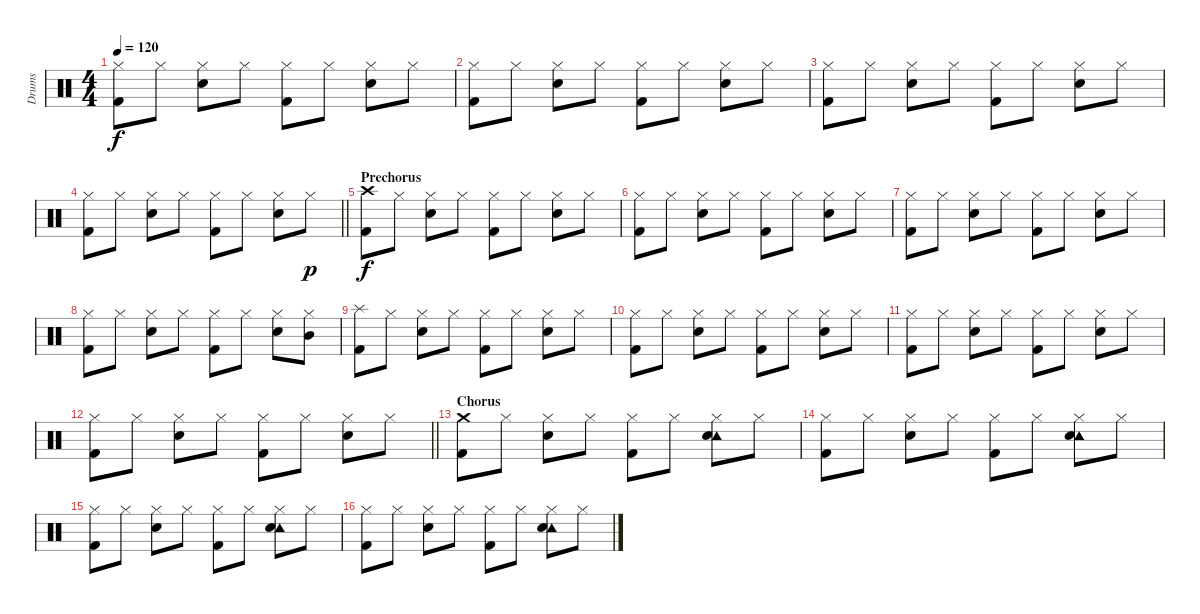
\track ("Drums" "Drums") {instrument percussion}
\staff {score}
\articulation defaults
\ts (4 4)
\tempo 120
\clef neutral
\ks c
("Hi-Hat (closed)" "Kick (hit) 2").8{dy f} "Hi-Hat (closed)".8 ("Hi-Hat (closed)" "Electric Snare (hit)").8 "Hi-Hat (closed)".8 ("Hi-Hat (closed)" "Kick (hit) 2").8 "Hi-Hat (closed)".8 ("Hi-Hat (closed)" "Electric Snare (hit)").8 "Hi-Hat (closed)".8 |
("Hi-Hat (closed)" "Kick (hit) 2").8 "Hi-Hat (closed)".8 ("Hi-Hat (closed)" "Electric Snare (hit)").8 "Hi-Hat (closed)".8 ("Hi-Hat (closed)" "Kick (hit) 2").8 "Hi-Hat (closed)".8 ("Hi-Hat (closed)" "Electric Snare (hit)").8 "Hi-Hat (closed)".8 |
("Hi-Hat (closed)" "Kick (hit) 2").8 "Hi-Hat (closed)".8 ("Hi-Hat (closed)" "Electric Snare (hit)").8 "Hi-Hat (closed)".8 ("Hi-Hat (closed)" "Kick (hit) 2").8 "Hi-Hat (closed)".8 ("Hi-Hat (closed)" "Electric Snare (hit)").8 "Hi-Hat (closed)".8 |
\barLineRight lightlight
("Hi-Hat (closed)" "Kick (hit) 2").8 "Hi-Hat (closed)".8 ("Hi-Hat (closed)" "Electric Snare (hit)").8 "Hi-Hat (closed)".8 ("Hi-Hat (closed)" "Kick (hit) 2").8 "Hi-Hat (closed)".8 ("Hi-Hat (closed)" "Electric Snare (hit)").8 "Hi-Hat (closed)".8{dy p} |
\section ("" "Prechorus")
("Crash high (hit)" "Kick (hit) 2").8{dy f} "Hi-Hat (closed)".8 ("Hi-Hat (closed)" "Electric Snare (hit)").8 "Hi-Hat (closed)".8 ("Hi-Hat (closed)" "Kick (hit) 2").8 "Hi-Hat (closed)".8 ("Hi-Hat (closed)" "Electric Snare (hit)").8 "Hi-Hat (closed)".8 |
("Hi-Hat (closed)" "Kick (hit) 2").8 "Hi-Hat (closed)".8 ("Hi-Hat (closed)" "Electric Snare (hit)").8 "Hi-Hat (closed)".8 ("Hi-Hat (closed)" "Kick (hit) 2").8 "Hi-Hat (closed)".8 ("Hi-Hat (closed)" "Electric Snare (hit)").8 "Hi-Hat (closed)".8 |
("Hi-Hat (closed)" "Kick (hit) 2").8 "Hi-Hat (closed)".8 ("Hi-Hat (closed)" "Electric Snare (hit)").8 "Hi-Hat (closed)".8 ("Hi-Hat (closed)" "Kick (hit) 2").8 "Hi-Hat (closed)".8 ("Hi-Hat (closed)" "Electric Snare (hit)").8 "Hi-Hat (closed)".8 |
("Hi-Hat (closed)" "Kick (hit) 2").8 "Hi-Hat (closed)".8 ("Hi-Hat (closed)" "Electric Snare (hit)").8 "Hi-Hat (closed)".8 ("Hi-Hat (closed)" "Kick (hit) 2").8 "Hi-Hat (closed)".8 ("Hi-Hat (closed)" "Electric Snare (hit)").8 ("Hi-Hat (closed)" "Mid Tom (hit)").8 |
("Splash (hit)" "Kick (hit) 2").8 "Hi-Hat (closed)".8 ("Hi-Hat (closed)" "Electric Snare (hit)").8 "Hi-Hat (closed)".8 ("Hi-Hat (closed)" "Kick (hit) 2").8 "Hi-Hat (closed)".8 ("Hi-Hat (closed)" "Electric Snare (hit)").8 "Hi-Hat (closed)".8 |
("Hi-Hat (closed)" "Kick (hit) 2").8 "Hi-Hat (closed)".8 ("Hi-Hat (closed)" "Electric Snare (hit)").8 "Hi-Hat (closed)".8 ("Hi-Hat (closed)" "Kick (hit) 2").8 "Hi-Hat (closed)".8 ("Hi-Hat (closed)" "Electric Snare (hit)").8 "Hi-Hat (closed)".8 |
("Hi-Hat (closed)" "Kick (hit) 2").8 "Hi-Hat (closed)".8 ("Hi-Hat (closed)" "Electric Snare (hit)").8 "Hi-Hat (closed)".8 ("Hi-Hat (closed)" "Kick (hit) 2").8 "Hi-Hat (closed)".8 ("Hi-Hat (closed)" "Electric Snare (hit)").8 "Hi-Hat (closed)".8 |
\barLineRight lightlight
("Hi-Hat (closed)" "Kick (hit) 2").8 "Hi-Hat (closed)".8 ("Hi-Hat (closed)" "Electric Snare (hit)").8 "Hi-Hat (closed)".8 ("Hi-Hat (closed)" "Kick (hit) 2").8 "Hi-Hat (closed)".8 ("Hi-Hat (closed)" "Electric Snare (hit)").8 "Hi-Hat (closed)".8 |
\section ("" "Chorus")
("Crash medium (hit)" "Kick (hit) 2").8 "Hi-Hat (closed)".8 ("Hi-Hat (closed)" "Electric Snare (hit)").8 "Hi-Hat (closed)".8 ("Hi-Hat (closed)" "Kick (hit) 2").8 "Hi-Hat (closed)".8 ("Hi-Hat (closed)" "Tambourine (hit)" "Electric Snare (hit)").8 "Hi-Hat (closed)".8 |
("Hi-Hat (closed)" "Kick (hit) 2").8 "Hi-Hat (closed)".8 ("Hi-Hat (closed)" "Electric Snare (hit)").8 "Hi-Hat (closed)".8 ("Hi-Hat (closed)" "Kick (hit) 2").8 "Hi-Hat (closed)".8 ("Hi-Hat (closed)" "Tambourine (hit)" "Electric Snare (hit)").8 "Hi-Hat (closed)".8 |
("Hi-Hat (closed)" "Kick (hit) 2").8 "Hi-Hat (closed)".8 ("Hi-Hat (closed)" "Electric Snare (hit)").8 "Hi-Hat (closed)".8 ("Hi-Hat (closed)" "Kick (hit) 2").8 "Hi-Hat (closed)".8 ("Hi-Hat (closed)" "Tambourine (hit)" "Electric Snare (hit)").8 "Hi-Hat (closed)".8 |
("Hi-Hat (closed)" "Kick (hit) 2").8 "Hi-Hat (closed)".8 ("Hi-Hat (closed)" "Electric Snare (hit)").8 "Hi-Hat (closed)".8 ("Hi-Hat (closed)" "Kick (hit) 2").8 "Hi-Hat (closed)".8 ("Hi-Hat (closed)" "Tambourine (hit)" "Electric Snare (hit)").8 "Hi-Hat (closed)".8
